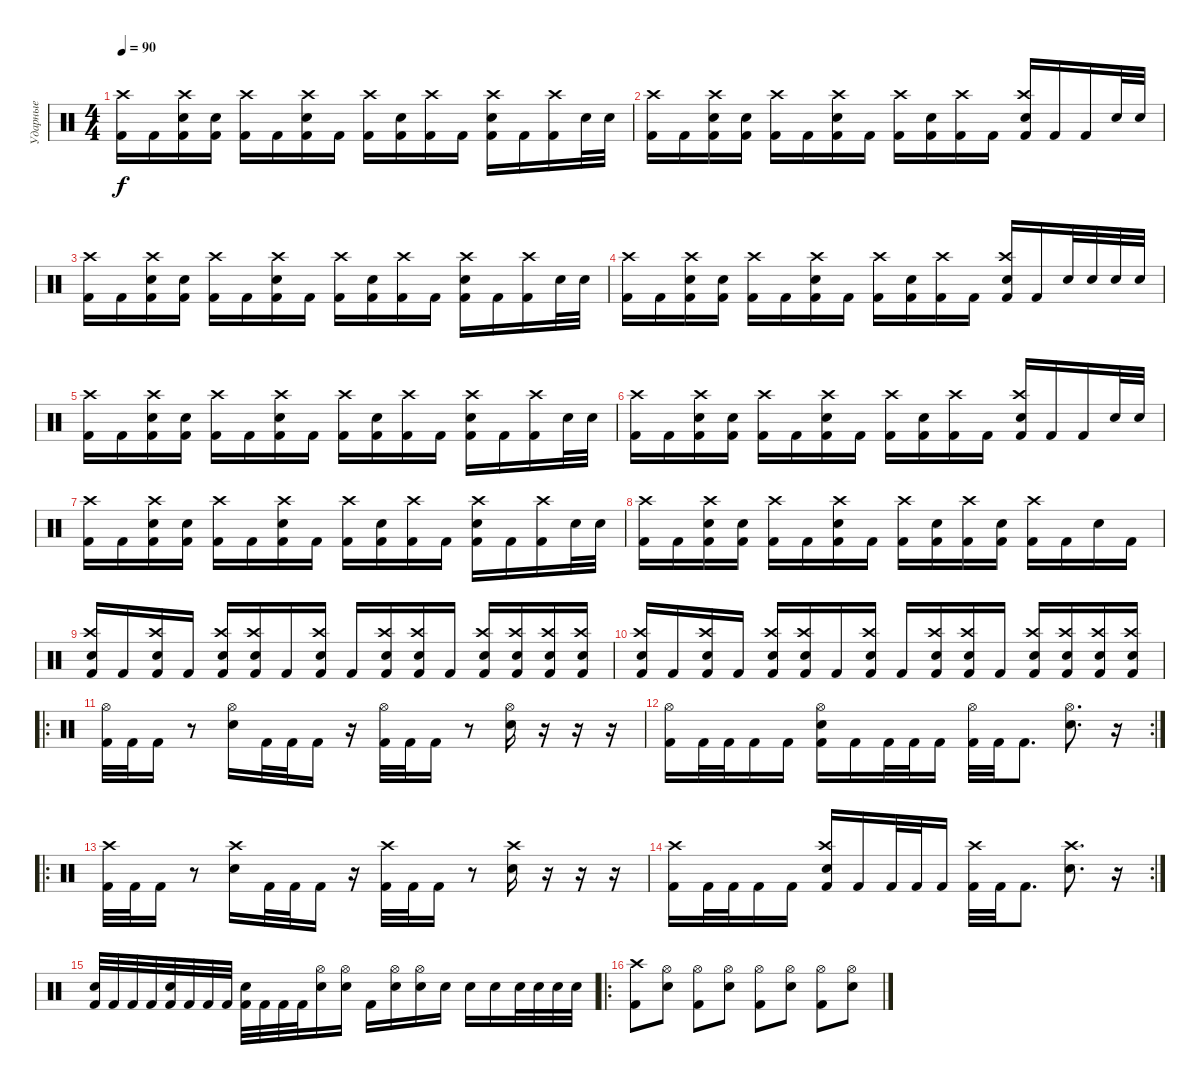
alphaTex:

\track ("Ударные" "Ударные") {instrument percussion}
\staff {score}
\articulation defaults
\ts (4 4)
\tempo 90
\clef neutral
\ks c
("Kick (hit) 2" "Crash high (hit)").16{dy f} "Kick (hit) 2".16 ("Kick (hit) 2" "Electric Snare (hit)" "Crash high (hit)").16 ("Kick (hit) 2" "Electric Snare (hit)").16 ("Kick (hit) 2" "Crash high (hit)").16 "Kick (hit) 2".16 ("Kick (hit) 2" "Electric Snare (hit)" "Crash high (hit)").16 "Kick (hit) 2".16 ("Kick (hit) 2" "Crash high (hit)").16 ("Kick (hit) 2" "Electric Snare (hit)").16 ("Kick (hit) 2" "Crash high (hit)").16 "Kick (hit) 2".16 ("Kick (hit) 2" "Electric Snare (hit)" "Crash high (hit)").16 "Kick (hit) 2".16 ("Kick (hit) 2" "Crash high (hit)").16 "Electric Snare (hit)".32 "Electric Snare (hit)".32 |
("Kick (hit) 2" "Crash high (hit)").16 "Kick (hit) 2".16 ("Kick (hit) 2" "Electric Snare (hit)" "Crash high (hit)").16 ("Kick (hit) 2" "Electric Snare (hit)").16 ("Kick (hit) 2" "Crash high (hit)").16 "Kick (hit) 2".16 ("Kick (hit) 2" "Electric Snare (hit)" "Crash high (hit)").16 "Kick (hit) 2".16 ("Kick (hit) 2" "Crash high (hit)").16 ("Kick (hit) 2" "Electric Snare (hit)").16 ("Kick (hit) 2" "Crash high (hit)").16 "Kick (hit) 2".16 ("Kick (hit) 2" "Electric Snare (hit)" "Crash high (hit)").16 "Kick (hit) 2".16 "Kick (hit) 2".16 "Electric Snare (hit)".32 "Electric Snare (hit)".32 |
("Kick (hit) 2" "Crash high (hit)").16 "Kick (hit) 2".16 ("Kick (hit) 2" "Electric Snare (hit)" "Crash high (hit)").16 ("Kick (hit) 2" "Electric Snare (hit)").16 ("Kick (hit) 2" "Crash high (hit)").16 "Kick (hit) 2".16 ("Kick (hit) 2" "Electric Snare (hit)" "Crash high (hit)").16 "Kick (hit) 2".16 ("Kick (hit) 2" "Crash high (hit)").16 ("Kick (hit) 2" "Electric Snare (hit)").16 ("Kick (hit) 2" "Crash high (hit)").16 "Kick (hit) 2".16 ("Kick (hit) 2" "Electric Snare (hit)" "Crash high (hit)").16 "Kick (hit) 2".16 ("Kick (hit) 2" "Crash high (hit)").16 "Electric Snare (hit)".32 "Electric Snare (hit)".32 |
("Kick (hit) 2" "Crash high (hit)").16 "Kick (hit) 2".16 ("Kick (hit) 2" "Electric Snare (hit)" "Crash high (hit)").16 ("Kick (hit) 2" "Electric Snare (hit)").16 ("Kick (hit) 2" "Crash high (hit)").16 "Kick (hit) 2".16 ("Kick (hit) 2" "Electric Snare (hit)" "Crash high (hit)").16 "Kick (hit) 2".16 ("Kick (hit) 2" "Crash high (hit)").16 ("Kick (hit) 2" "Electric Snare (hit)").16 ("Kick (hit) 2" "Crash high (hit)").16 "Kick (hit) 2".16 ("Kick (hit) 2" "Electric Snare (hit)" "Crash high (hit)").16 "Kick (hit) 2".16 "Electric Snare (hit)".32 "Electric Snare (hit)".32 "Electric Snare (hit)".32 "Electric Snare (hit)".32 |
("Kick (hit) 2" "Crash high (hit)").16 "Kick (hit) 2".16 ("Kick (hit) 2" "Electric Snare (hit)" "Crash high (hit)").16 ("Kick (hit) 2" "Electric Snare (hit)").16 ("Kick (hit) 2" "Crash high (hit)").16 "Kick (hit) 2".16 ("Kick (hit) 2" "Electric Snare (hit)" "Crash high (hit)").16 "Kick (hit) 2".16 ("Kick (hit) 2" "Crash high (hit)").16 ("Kick (hit) 2" "Electric Snare (hit)").16 ("Kick (hit) 2" "Crash high (hit)").16 "Kick (hit) 2".16 ("Kick (hit) 2" "Electric Snare (hit)" "Crash high (hit)").16 "Kick (hit) 2".16 ("Kick (hit) 2" "Crash high (hit)").16 "Electric Snare (hit)".32 "Electric Snare (hit)".32 |
("Kick (hit) 2" "Crash high (hit)").16 "Kick (hit) 2".16 ("Kick (hit) 2" "Electric Snare (hit)" "Crash high (hit)").16 ("Kick (hit) 2" "Electric Snare (hit)").16 ("Kick (hit) 2" "Crash high (hit)").16 "Kick (hit) 2".16 ("Kick (hit) 2" "Electric Snare (hit)" "Crash high (hit)").16 "Kick (hit) 2".16 ("Kick (hit) 2" "Crash high (hit)").16 ("Kick (hit) 2" "Electric Snare (hit)").16 ("Kick (hit) 2" "Crash high (hit)").16 "Kick (hit) 2".16 ("Kick (hit) 2" "Electric Snare (hit)" "Crash high (hit)").16 "Kick (hit) 2".16 "Kick (hit) 2".16 "Electric Snare (hit)".32 "Electric Snare (hit)".32 |
("Kick (hit) 2" "Crash high (hit)").16 "Kick (hit) 2".16 ("Kick (hit) 2" "Electric Snare (hit)" "Crash high (hit)").16 ("Kick (hit) 2" "Electric Snare (hit)").16 ("Kick (hit) 2" "Crash high (hit)").16 "Kick (hit) 2".16 ("Kick (hit) 2" "Electric Snare (hit)" "Crash high (hit)").16 "Kick (hit) 2".16 ("Kick (hit) 2" "Crash high (hit)").16 ("Kick (hit) 2" "Electric Snare (hit)").16 ("Kick (hit) 2" "Crash high (hit)").16 "Kick (hit) 2".16 ("Kick (hit) 2" "Electric Snare (hit)" "Crash high (hit)").16 "Kick (hit) 2".16 ("Kick (hit) 2" "Crash high (hit)").16 "Electric Snare (hit)".32 "Electric Snare (hit)".32 |
("Kick (hit) 2" "Crash high (hit)").16 "Kick (hit) 2".16 ("Kick (hit) 2" "Electric Snare (hit)" "Crash high (hit)").16 ("Kick (hit) 2" "Electric Snare (hit)").16 ("Kick (hit) 2" "Crash high (hit)").16 "Kick (hit) 2".16 ("Kick (hit) 2" "Electric Snare (hit)" "Crash high (hit)").16 "Kick (hit) 2".16 ("Kick (hit) 2" "Crash high (hit)").16 ("Kick (hit) 2" "Electric Snare (hit)").16 ("Kick (hit) 2" "Crash high (hit)").16 ("Kick (hit) 2" "Electric Snare (hit)").16 ("Kick (hit) 2" "Crash high (hit)").16 "Kick (hit) 2".16 "Electric Snare (hit)".16 "Kick (hit) 2".16 |
("Kick (hit) 2" "Electric Snare (hit)" "Crash high (hit)").16 "Kick (hit) 2".16 ("Kick (hit) 2" "Electric Snare (hit)" "Crash high (hit)").16 "Kick (hit) 2".16 ("Kick (hit) 2" "Electric Snare (hit)" "Crash high (hit)").16 ("Kick (hit) 2" "Electric Snare (hit)" "Crash high (hit)").16 "Kick (hit) 2".16 ("Kick (hit) 2" "Electric Snare (hit)" "Crash high (hit)").16 "Kick (hit) 2".16 ("Kick (hit) 2" "Electric Snare (hit)" "Crash high (hit)").16 ("Kick (hit) 2" "Electric Snare (hit)" "Crash high (hit)").16 "Kick (hit) 2".16 ("Kick (hit) 2" "Electric Snare (hit)" "Crash high (hit)").16 ("Kick (hit) 2" "Electric Snare (hit)" "Crash high (hit)").16 ("Kick (hit) 2" "Electric Snare (hit)" "Crash high (hit)").16 ("Kick (hit) 2" "Electric Snare (hit)" "Crash high (hit)").16 |
("Kick (hit) 2" "Electric Snare (hit)" "Crash high (hit)").16 "Kick (hit) 2".16 ("Kick (hit) 2" "Electric Snare (hit)" "Crash high (hit)").16 "Kick (hit) 2".16 ("Kick (hit) 2" "Electric Snare (hit)" "Crash high (hit)").16 ("Kick (hit) 2" "Electric Snare (hit)" "Crash high (hit)").16 "Kick (hit) 2".16 ("Kick (hit) 2" "Electric Snare (hit)" "Crash high (hit)").16 "Kick (hit) 2".16 ("Kick (hit) 2" "Electric Snare (hit)" "Crash high (hit)").16 ("Kick (hit) 2" "Electric Snare (hit)" "Crash high (hit)").16 "Kick (hit) 2".16 ("Kick (hit) 2" "Electric Snare (hit)" "Crash high (hit)").16 ("Kick (hit) 2" "Electric Snare (hit)" "Crash high (hit)").16 ("Kick (hit) 2" "Electric Snare (hit)" "Crash high (hit)").16 ("Kick (hit) 2" "Electric Snare (hit)" "Crash high (hit)").16 |
\ro
("Kick (hit) 2" "Hi-Hat (open)").32 "Kick (hit) 2".32 "Kick (hit) 2".16 r.8 ("Electric Snare (hit)" "Hi-Hat (open)").16 "Kick (hit) 2".32 "Kick (hit) 2".32 "Kick (hit) 2".16 r.16 ("Kick (hit) 2" "Hi-Hat (open)").32 "Kick (hit) 2".32 "Kick (hit) 2".16 r.8 ("Electric Snare (hit)" "Hi-Hat (open)").16 r.16 r.16 r.16 |
\rc 2
("Kick (hit) 2" "Hi-Hat (open)").16 "Kick (hit) 2".32 "Kick (hit) 2".32 "Kick (hit) 2".16 "Kick (hit) 2".16 ("Kick (hit) 2" "Electric Snare (hit)" "Hi-Hat (open)").16 "Kick (hit) 2".16 "Kick (hit) 2".32 "Kick (hit) 2".32 "Kick (hit) 2".16 ("Kick (hit) 2" "Hi-Hat (open)").32 "Kick (hit) 2".32 "Kick (hit) 2".8{d} ("Electric Snare (hit)" "Hi-Hat (open)").8{d} r.16 |
\ro
("Kick (hit) 2" "Crash high (hit)").32 "Kick (hit) 2".32 "Kick (hit) 2".16 r.8 ("Electric Snare (hit)" "Crash high (hit)").16 "Kick (hit) 2".32 "Kick (hit) 2".32 "Kick (hit) 2".16 r.16 ("Kick (hit) 2" "Crash high (hit)").32 "Kick (hit) 2".32 "Kick (hit) 2".16 r.8 ("Electric Snare (hit)" "Crash high (hit)").16 r.16 r.16 r.16 |
\rc 2
("Kick (hit) 2" "Crash high (hit)").16 "Kick (hit) 2".32 "Kick (hit) 2".32 "Kick (hit) 2".16 "Kick (hit) 2".16 ("Kick (hit) 2" "Electric Snare (hit)" "Crash high (hit)").16 "Kick (hit) 2".16 "Kick (hit) 2".32 "Kick (hit) 2".32 "Kick (hit) 2".16 ("Kick (hit) 2" "Crash high (hit)").32 "Kick (hit) 2".32 "Kick (hit) 2".8{d} ("Electric Snare (hit)" "Crash high (hit)").8{d} r.16 |
("Kick (hit) 2" "Electric Snare (hit)").32 "Kick (hit) 2".32 "Kick (hit) 2".32 "Kick (hit) 2".32 ("Kick (hit) 2" "Electric Snare (hit)").32 "Kick (hit) 2".32 "Kick (hit) 2".32 "Kick (hit) 2".32 ("Kick (hit) 2" "Electric Snare (hit)").32 "Kick (hit) 2".32 "Kick (hit) 2".32 "Kick (hit) 2".32 ("Electric Snare (hit)" "Hi-Hat (open)").16 ("Electric Snare (hit)" "Hi-Hat (open)").16 "Kick (hit) 2".16 ("Electric Snare (hit)" "Hi-Hat (open)").16 ("Electric Snare (hit)" "Hi-Hat (open)").16 "Electric Snare (hit)".16 "Electric Snare (hit)".16 "Electric Snare (hit)".16 "Electric Snare (hit)".32 "Electric Snare (hit)".32 "Electric Snare (hit)".32 "Electric Snare (hit)".32 |
\ro
("Crash high (hit)" "Kick (hit) 2").8 ("Hi-Hat (open)" "Electric Snare (hit)").8 ("Hi-Hat (open)" "Kick (hit) 2").8 ("Hi-Hat (open)" "Electric Snare (hit)").8 ("Hi-Hat (open)" "Kick (hit) 2").8 ("Hi-Hat (open)" "Electric Snare (hit)").8 ("Hi-Hat (open)" "Kick (hit) 2").8 ("Hi-Hat (open)" "Electric Snare (hit)").8
